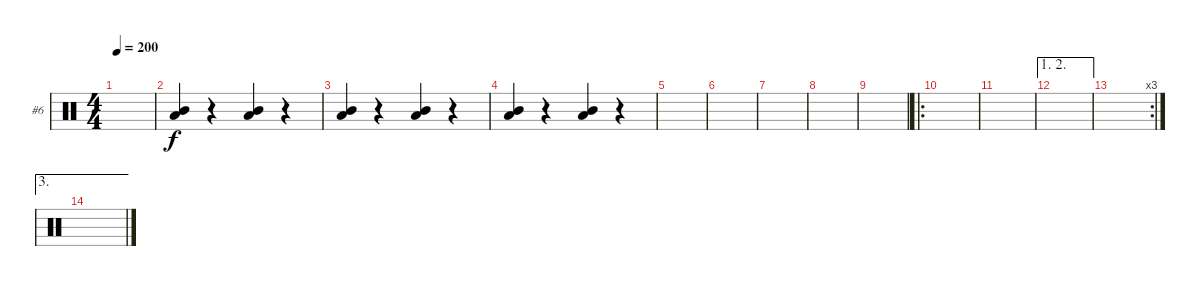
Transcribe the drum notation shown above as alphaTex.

\bracketExtendMode groupsimilarinstruments
\firstSystemTrackNameOrientation horizontal
\otherSystemsTrackNameOrientation horizontal
\track ("Shawn \"Clown\" Crahan" "#6") {instrument percussion}
\staff {score}
\articulation defaults
\ts (4 4)
\tempo 200
\clef neutral
\ks c
|
("Low Tom (hit)" "Mid Tom (hit)").4 r.4 ("Low Tom (hit)" "Mid Tom (hit)").4 r.4 |
("Low Tom (hit)" "Mid Tom (hit)").4 r.4 ("Low Tom (hit)" "Mid Tom (hit)").4 r.4 |
("Low Tom (hit)" "Mid Tom (hit)").4 r.4 ("Low Tom (hit)" "Mid Tom (hit)").4 r.4 |
|
|
|
|
|
\ro
|
|
\ae (1 2)
|
\rc 3
|
\ae 3
